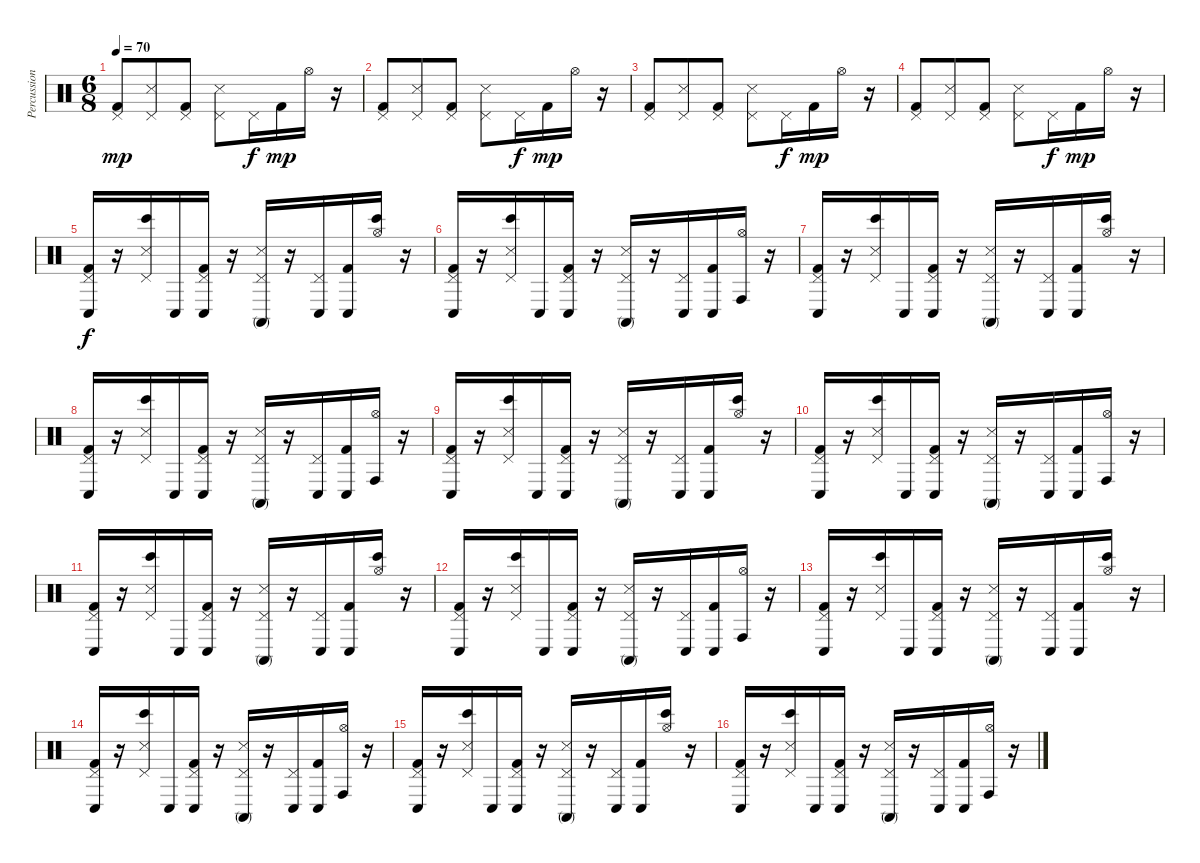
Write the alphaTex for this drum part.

\track ("Percussion" "Percussion") {instrument percussion}
\staff {score}
\articulation defaults
\ts (6 8)
\tempo 70
\clef neutral
\ks c
("Pedal Hi-Hat (hit)" "Kick (hit) 2").8{dy mp} ("Pedal Hi-Hat (hit)" "Snare (side stick) 3").8 ("Pedal Hi-Hat (hit)" "Kick (hit) 2").8 ("Pedal Hi-Hat (hit)" "Snare (side stick) 3").8 "Pedal Hi-Hat (hit)".16{dy f} "Kick (hit) 2".16{dy mp} "Hi-Hat (open)".16 r.16 |
("Pedal Hi-Hat (hit)" "Kick (hit) 2").8 ("Pedal Hi-Hat (hit)" "Snare (side stick) 3").8 ("Pedal Hi-Hat (hit)" "Kick (hit) 2").8 ("Pedal Hi-Hat (hit)" "Snare (side stick) 3").8 "Pedal Hi-Hat (hit)".16{dy f} "Kick (hit) 2".16{dy mp} "Hi-Hat (open)".16 r.16 |
("Pedal Hi-Hat (hit)" "Kick (hit) 2").8 ("Pedal Hi-Hat (hit)" "Snare (side stick) 3").8 ("Pedal Hi-Hat (hit)" "Kick (hit) 2").8 ("Pedal Hi-Hat (hit)" "Snare (side stick) 3").8 "Pedal Hi-Hat (hit)".16{dy f} "Kick (hit) 2".16{dy mp} "Hi-Hat (open)".16 r.16 |
("Pedal Hi-Hat (hit)" "Kick (hit) 2").8 ("Pedal Hi-Hat (hit)" "Snare (side stick) 3").8 ("Pedal Hi-Hat (hit)" "Kick (hit) 2").8 ("Pedal Hi-Hat (hit)" "Snare (side stick) 3").8 "Pedal Hi-Hat (hit)".16{dy f} "Kick (hit) 2".16{dy mp} "Hi-Hat (open)".16 r.16 |
("Pedal Hi-Hat (hit)" "Conga low (hit)" "Kick (hit) 2").16{dy f} r.16 ("Pedal Hi-Hat (hit)" "Bongo High (hit)" "Snare (side stick) 3").16 "Conga low (hit)".16 ("Pedal Hi-Hat (hit)" "Conga low (hit)" "Kick (hit) 2").16 r.16 ("Pedal Hi-Hat (hit)" "Conga high (mute)" "Snare (side stick) 3").16 r.16 ("Pedal Hi-Hat (hit)" "Conga low (hit)").16 ("Conga low (hit)" "Kick (hit) 2").16 ("Hi-Hat (open)" "Bongo High (hit)").16 r.16 |
("Pedal Hi-Hat (hit)" "Conga low (hit)" "Kick (hit) 2").16 r.16 ("Pedal Hi-Hat (hit)" "Bongo High (hit)" "Snare (side stick) 3").16 "Conga low (hit)".16 ("Pedal Hi-Hat (hit)" "Conga low (hit)" "Kick (hit) 2").16 r.16 ("Pedal Hi-Hat (hit)" "Conga high (mute)" "Snare (side stick) 3").16 r.16 ("Pedal Hi-Hat (hit)" "Conga low (hit)").16 ("Conga low (hit)" "Kick (hit) 2").16 ("Hi-Hat (open)" "Conga high (hit)").16 r.16 |
("Pedal Hi-Hat (hit)" "Conga low (hit)" "Kick (hit) 2").16 r.16 ("Pedal Hi-Hat (hit)" "Bongo High (hit)" "Snare (side stick) 3").16 "Conga low (hit)".16 ("Pedal Hi-Hat (hit)" "Conga low (hit)" "Kick (hit) 2").16 r.16 ("Pedal Hi-Hat (hit)" "Conga high (mute)" "Snare (side stick) 3").16 r.16 ("Pedal Hi-Hat (hit)" "Conga low (hit)").16 ("Conga low (hit)" "Kick (hit) 2").16 ("Hi-Hat (open)" "Bongo High (hit)").16 r.16 |
("Pedal Hi-Hat (hit)" "Conga low (hit)" "Kick (hit) 2").16 r.16 ("Pedal Hi-Hat (hit)" "Bongo High (hit)" "Snare (side stick) 3").16 "Conga low (hit)".16 ("Pedal Hi-Hat (hit)" "Conga low (hit)" "Kick (hit) 2").16 r.16 ("Pedal Hi-Hat (hit)" "Conga high (mute)" "Snare (side stick) 3").16 r.16 ("Pedal Hi-Hat (hit)" "Conga low (hit)").16 ("Conga low (hit)" "Kick (hit) 2").16 ("Hi-Hat (open)" "Conga high (hit)").16 r.16 |
("Pedal Hi-Hat (hit)" "Conga low (hit)" "Kick (hit) 2").16 r.16 ("Pedal Hi-Hat (hit)" "Bongo High (hit)" "Snare (side stick) 3").16 "Conga low (hit)".16 ("Pedal Hi-Hat (hit)" "Conga low (hit)" "Kick (hit) 2").16 r.16 ("Pedal Hi-Hat (hit)" "Conga high (mute)" "Snare (side stick) 3").16 r.16 ("Pedal Hi-Hat (hit)" "Conga low (hit)").16 ("Conga low (hit)" "Kick (hit) 2").16 ("Hi-Hat (open)" "Bongo High (hit)").16 r.16 |
("Pedal Hi-Hat (hit)" "Conga low (hit)" "Kick (hit) 2").16 r.16 ("Pedal Hi-Hat (hit)" "Bongo High (hit)" "Snare (side stick) 3").16 "Conga low (hit)".16 ("Pedal Hi-Hat (hit)" "Conga low (hit)" "Kick (hit) 2").16 r.16 ("Pedal Hi-Hat (hit)" "Conga high (mute)" "Snare (side stick) 3").16 r.16 ("Pedal Hi-Hat (hit)" "Conga low (hit)").16 ("Conga low (hit)" "Kick (hit) 2").16 ("Hi-Hat (open)" "Conga high (hit)").16 r.16 |
("Pedal Hi-Hat (hit)" "Conga low (hit)" "Kick (hit) 2").16 r.16 ("Pedal Hi-Hat (hit)" "Bongo High (hit)" "Snare (side stick) 3").16 "Conga low (hit)".16 ("Pedal Hi-Hat (hit)" "Conga low (hit)" "Kick (hit) 2").16 r.16 ("Pedal Hi-Hat (hit)" "Conga high (mute)" "Snare (side stick) 3").16 r.16 ("Pedal Hi-Hat (hit)" "Conga low (hit)").16 ("Conga low (hit)" "Kick (hit) 2").16 ("Hi-Hat (open)" "Bongo High (hit)").16 r.16 |
("Pedal Hi-Hat (hit)" "Conga low (hit)" "Kick (hit) 2").16 r.16 ("Pedal Hi-Hat (hit)" "Bongo High (hit)" "Snare (side stick) 3").16 "Conga low (hit)".16 ("Pedal Hi-Hat (hit)" "Conga low (hit)" "Kick (hit) 2").16 r.16 ("Pedal Hi-Hat (hit)" "Conga high (mute)" "Snare (side stick) 3").16 r.16 ("Pedal Hi-Hat (hit)" "Conga low (hit)").16 ("Conga low (hit)" "Kick (hit) 2").16 ("Hi-Hat (open)" "Conga high (hit)").16 r.16 |
("Pedal Hi-Hat (hit)" "Conga low (hit)" "Kick (hit) 2").16 r.16 ("Pedal Hi-Hat (hit)" "Bongo High (hit)" "Snare (side stick) 3").16 "Conga low (hit)".16 ("Pedal Hi-Hat (hit)" "Conga low (hit)" "Kick (hit) 2").16 r.16 ("Pedal Hi-Hat (hit)" "Conga high (mute)" "Snare (side stick) 3").16 r.16 ("Pedal Hi-Hat (hit)" "Conga low (hit)").16 ("Conga low (hit)" "Kick (hit) 2").16 ("Hi-Hat (open)" "Bongo High (hit)").16 r.16 |
("Pedal Hi-Hat (hit)" "Conga low (hit)" "Kick (hit) 2").16 r.16 ("Pedal Hi-Hat (hit)" "Bongo High (hit)" "Snare (side stick) 3").16 "Conga low (hit)".16 ("Pedal Hi-Hat (hit)" "Conga low (hit)" "Kick (hit) 2").16 r.16 ("Pedal Hi-Hat (hit)" "Conga high (mute)" "Snare (side stick) 3").16 r.16 ("Pedal Hi-Hat (hit)" "Conga low (hit)").16 ("Conga low (hit)" "Kick (hit) 2").16 ("Hi-Hat (open)" "Conga high (hit)").16 r.16 |
("Pedal Hi-Hat (hit)" "Conga low (hit)" "Kick (hit) 2").16 r.16 ("Pedal Hi-Hat (hit)" "Bongo High (hit)" "Snare (side stick) 3").16 "Conga low (hit)".16 ("Pedal Hi-Hat (hit)" "Conga low (hit)" "Kick (hit) 2").16 r.16 ("Pedal Hi-Hat (hit)" "Conga high (mute)" "Snare (side stick) 3").16 r.16 ("Pedal Hi-Hat (hit)" "Conga low (hit)").16 ("Conga low (hit)" "Kick (hit) 2").16 ("Hi-Hat (open)" "Bongo High (hit)").16 r.16 |
("Pedal Hi-Hat (hit)" "Conga low (hit)" "Kick (hit) 2").16 r.16 ("Pedal Hi-Hat (hit)" "Bongo High (hit)" "Snare (side stick) 3").16 "Conga low (hit)".16 ("Pedal Hi-Hat (hit)" "Conga low (hit)" "Kick (hit) 2").16 r.16 ("Pedal Hi-Hat (hit)" "Conga high (mute)" "Snare (side stick) 3").16 r.16 ("Pedal Hi-Hat (hit)" "Conga low (hit)").16 ("Conga low (hit)" "Kick (hit) 2").16 ("Hi-Hat (open)" "Conga high (hit)").16 r.16
